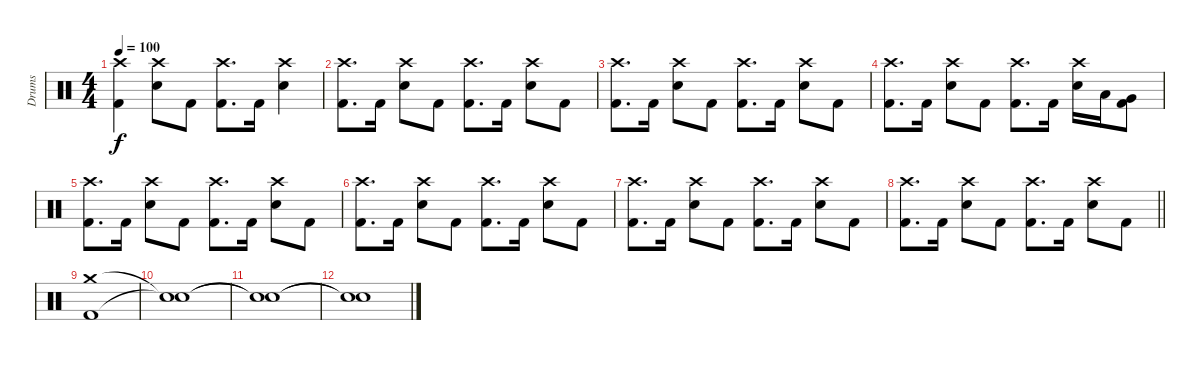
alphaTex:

\track ("Drums" "Drums") {instrument percussion}
\staff {score}
\articulation defaults
\ts (4 4)
\tempo 100
\clef neutral
\ks c
("Crash high (hit)" "Kick (hit) 2").4{dy f} ("Crash high (hit)" "Snare (hit) 2").8 "Kick (hit) 2".8 ("Crash high (hit)" "Kick (hit) 2").8{d} "Kick (hit) 2".16 ("Crash high (hit)" "Snare (hit) 2").4 |
("Crash high (hit)" "Kick (hit) 2").8{d} "Kick (hit) 2".16 ("Crash high (hit)" "Snare (hit) 2").8 "Kick (hit) 2".8 ("Crash high (hit)" "Kick (hit) 2").8{d} "Kick (hit) 2".16 ("Crash high (hit)" "Snare (hit) 2").8 "Kick (hit) 2".8 |
("Crash high (hit)" "Kick (hit) 2").8{d} "Kick (hit) 2".16 ("Crash high (hit)" "Snare (hit) 2").8 "Kick (hit) 2".8 ("Crash high (hit)" "Kick (hit) 2").8{d} "Kick (hit) 2".16 ("Crash high (hit)" "Snare (hit) 2").8 "Kick (hit) 2".8 |
("Crash high (hit)" "Kick (hit) 2").8{d} "Kick (hit) 2".16 ("Crash high (hit)" "Snare (hit) 2").8 "Kick (hit) 2".8 ("Crash high (hit)" "Kick (hit) 2").8{d} "Kick (hit) 2".16 ("Crash high (hit)" "Snare (hit) 2").16 "Low Tom (hit)".16 ("Very Low Tom (hit)" "Kick (hit) 2").8 |
("Crash high (hit)" "Kick (hit) 2").8{d} "Kick (hit) 2".16 ("Crash high (hit)" "Snare (hit) 2").8 "Kick (hit) 2".8 ("Crash high (hit)" "Kick (hit) 2").8{d} "Kick (hit) 2".16 ("Crash high (hit)" "Snare (hit) 2").8 "Kick (hit) 2".8 |
("Crash high (hit)" "Kick (hit) 2").8{d} "Kick (hit) 2".16 ("Crash high (hit)" "Snare (hit) 2").8 "Kick (hit) 2".8 ("Crash high (hit)" "Kick (hit) 2").8{d} "Kick (hit) 2".16 ("Crash high (hit)" "Snare (hit) 2").8 "Kick (hit) 2".8 |
("Crash high (hit)" "Kick (hit) 2").8{d} "Kick (hit) 2".16 ("Crash high (hit)" "Snare (hit) 2").8 "Kick (hit) 2".8 ("Crash high (hit)" "Kick (hit) 2").8{d} "Kick (hit) 2".16 ("Crash high (hit)" "Snare (hit) 2").8 "Kick (hit) 2".8 |
\barLineRight lightlight
("Crash high (hit)" "Kick (hit) 2").8{d} "Kick (hit) 2".16 ("Crash high (hit)" "Snare (hit) 2").8 "Kick (hit) 2".8 ("Crash high (hit)" "Kick (hit) 2").8{d} "Kick (hit) 2".16 ("Crash high (hit)" "Snare (hit) 2").8 "Kick (hit) 2".8 |
("Crash medium (hit)" "Kick (hit) 2").1 |
("Snare (hit)"{t} "Snare (hit)"{t}).1 |
("Snare (hit)"{t} "Snare (hit)"{t}).1 |
("Snare (hit)"{t} "Snare (hit)"{t}).1
